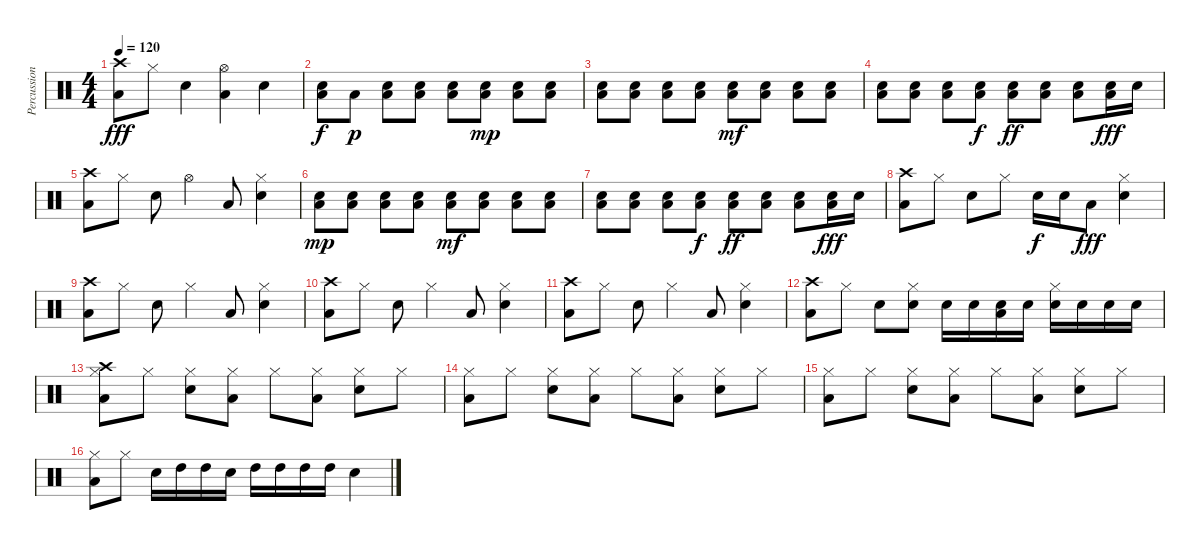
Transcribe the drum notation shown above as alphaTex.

\track ("Percussion" "Percussion") {instrument percussion}
\staff {score}
\articulation defaults
\ts (4 4)
\tempo 120
\clef neutral
\ks c
("Crash high (hit)" "Low Tom (hit)").8{dy fff} "Hi-Hat (closed)".8 "Electric Snare (hit)".4 ("Hi-Hat (open)" "Low Tom (hit)").4 "Electric Snare (hit)".4 |
("Electric Snare (hit)" "Low Tom (hit)").8{dy f} "Low Tom (hit)".8{dy p} ("Electric Snare (hit)" "Low Tom (hit)").8 ("Electric Snare (hit)" "Low Tom (hit)").8 ("Electric Snare (hit)" "Low Tom (hit)").8 ("Electric Snare (hit)" "Low Tom (hit)").8{dy mp} ("Electric Snare (hit)" "Low Tom (hit)").8 ("Electric Snare (hit)" "Low Tom (hit)").8 |
("Electric Snare (hit)" "Low Tom (hit)").8 ("Electric Snare (hit)" "Low Tom (hit)").8 ("Electric Snare (hit)" "Low Tom (hit)").8 ("Electric Snare (hit)" "Low Tom (hit)").8 ("Electric Snare (hit)" "Low Tom (hit)").8{dy mf} ("Electric Snare (hit)" "Low Tom (hit)").8 ("Electric Snare (hit)" "Low Tom (hit)").8 ("Electric Snare (hit)" "Low Tom (hit)").8 |
("Electric Snare (hit)" "Low Tom (hit)").8 ("Electric Snare (hit)" "Low Tom (hit)").8 ("Electric Snare (hit)" "Low Tom (hit)").8 ("Electric Snare (hit)" "Low Tom (hit)").8{dy f} ("Electric Snare (hit)" "Low Tom (hit)").8{dy ff} ("Electric Snare (hit)" "Low Tom (hit)").8 ("Electric Snare (hit)" "Low Tom (hit)").8 ("Electric Snare (hit)" "Low Tom (hit)").16{dy fff} "Electric Snare (hit)".16 |
("Crash high (hit)" "Low Tom (hit)").8 "Hi-Hat (closed)".8 "Electric Snare (hit)".8 "Hi-Hat (open)".4 "Low Tom (hit)".8 ("Electric Snare (hit)" "Hi-Hat (closed)").4 |
("Electric Snare (hit)" "Low Tom (hit)").8{dy mp} ("Electric Snare (hit)" "Low Tom (hit)").8 ("Electric Snare (hit)" "Low Tom (hit)").8 ("Electric Snare (hit)" "Low Tom (hit)").8 ("Electric Snare (hit)" "Low Tom (hit)").8{dy mf} ("Electric Snare (hit)" "Low Tom (hit)").8 ("Electric Snare (hit)" "Low Tom (hit)").8 ("Electric Snare (hit)" "Low Tom (hit)").8 |
("Electric Snare (hit)" "Low Tom (hit)").8 ("Electric Snare (hit)" "Low Tom (hit)").8 ("Electric Snare (hit)" "Low Tom (hit)").8 ("Electric Snare (hit)" "Low Tom (hit)").8{dy f} ("Electric Snare (hit)" "Low Tom (hit)").8{dy ff} ("Electric Snare (hit)" "Low Tom (hit)").8 ("Electric Snare (hit)" "Low Tom (hit)").8 ("Electric Snare (hit)" "Low Tom (hit)").16{dy fff} "Electric Snare (hit)".16 |
("Crash high (hit)" "Low Tom (hit)").8 "Hi-Hat (closed)".8 "Electric Snare (hit)".8 "Hi-Hat (closed)".8 "Electric Snare (hit)".16{dy f} "Electric Snare (hit)".16 "Low Tom (hit)".8{dy fff} ("Electric Snare (hit)" "Hi-Hat (closed)").4 |
("Crash high (hit)" "Low Tom (hit)").8 "Hi-Hat (closed)".8 "Electric Snare (hit)".8 "Hi-Hat (closed)".4 "Low Tom (hit)".8 ("Electric Snare (hit)" "Hi-Hat (closed)").4 |
("Crash high (hit)" "Low Tom (hit)").8 "Hi-Hat (closed)".8 "Electric Snare (hit)".8 "Hi-Hat (closed)".4 "Low Tom (hit)".8 ("Electric Snare (hit)" "Hi-Hat (closed)").4 |
("Crash high (hit)" "Low Tom (hit)").8 "Hi-Hat (closed)".8 "Electric Snare (hit)".8 "Hi-Hat (closed)".4 "Low Tom (hit)".8 ("Electric Snare (hit)" "Hi-Hat (closed)").4 |
("Crash high (hit)" "Low Tom (hit)").8 "Hi-Hat (closed)".8 "Electric Snare (hit)".8 ("Electric Snare (hit)" "Hi-Hat (closed)").8 "Electric Snare (hit)".16 "Electric Snare (hit)".16 ("Electric Snare (hit)" "Low Tom (hit)").16 "Electric Snare (hit)".16 ("Electric Snare (hit)" "Hi-Hat (closed)").16 "Electric Snare (hit)".16 "Electric Snare (hit)".16 "Electric Snare (hit)".16 |
("Crash high (hit)" "Hi-Hat (closed)" "Low Tom (hit)").8 "Hi-Hat (closed)".8 ("Hi-Hat (closed)" "Electric Snare (hit)").8 ("Hi-Hat (closed)" "Low Tom (hit)").8 "Hi-Hat (closed)".8 ("Hi-Hat (closed)" "Low Tom (hit)").8 ("Hi-Hat (closed)" "Electric Snare (hit)").8 "Hi-Hat (closed)".8 |
("Hi-Hat (closed)" "Low Tom (hit)").8 "Hi-Hat (closed)".8 ("Hi-Hat (closed)" "Electric Snare (hit)").8 ("Hi-Hat (closed)" "Low Tom (hit)").8 "Hi-Hat (closed)".8 ("Hi-Hat (closed)" "Low Tom (hit)").8 ("Hi-Hat (closed)" "Electric Snare (hit)").8 "Hi-Hat (closed)".8 |
("Hi-Hat (closed)" "Low Tom (hit)").8 "Hi-Hat (closed)".8 ("Hi-Hat (closed)" "Electric Snare (hit)").8 ("Hi-Hat (closed)" "Low Tom (hit)").8 "Hi-Hat (closed)".8 ("Hi-Hat (closed)" "Low Tom (hit)").8 ("Hi-Hat (closed)" "Electric Snare (hit)").8 "Hi-Hat (closed)".8 |
("Hi-Hat (closed)" "Low Tom (hit)").8 "Hi-Hat (closed)".8 "Electric Snare (hit)".16 "High Tom (hit)".16 "High Tom (hit)".16 "Electric Snare (hit)".16 "High Tom (hit)".16 "High Tom (hit)".16 "High Tom (hit)".16 "High Tom (hit)".16 "Electric Snare (hit)".4
